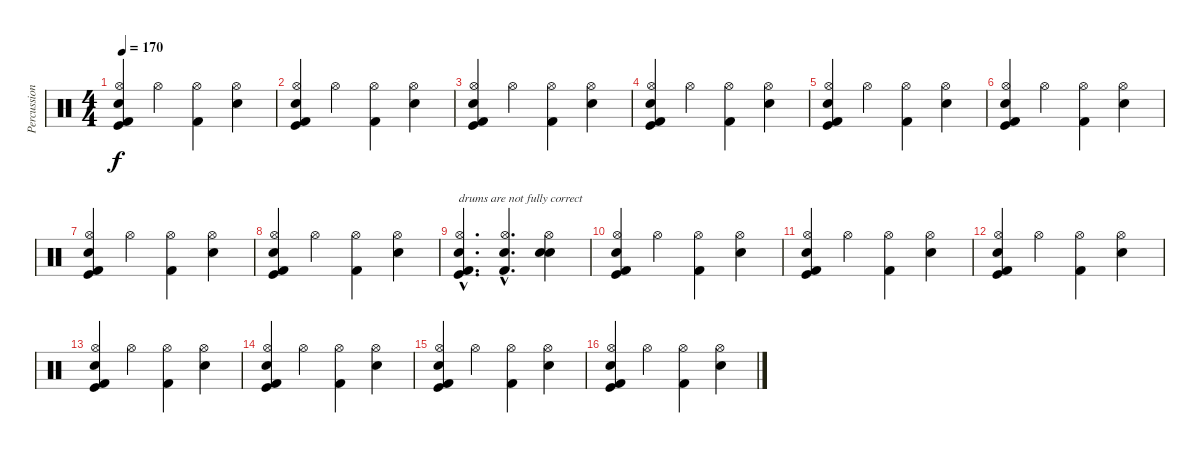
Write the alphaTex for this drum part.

\track ("Percussion" "Percussion") {instrument percussion}
\staff {score}
\articulation defaults
\ts (4 4)
\tempo 170
\clef neutral
\ks c
("Kick (hit) 2" "Hi-Hat (open)" "Kick (hit)" "Snare (hit) 2").4{dy f} "Hi-Hat (open)".4 ("Kick (hit) 2" "Hi-Hat (open)").4 ("Electric Snare (hit)" "Hi-Hat (open)").4 |
("Kick (hit) 2" "Hi-Hat (open)" "Kick (hit)" "Snare (hit) 2").4 "Hi-Hat (open)".4 ("Kick (hit) 2" "Hi-Hat (open)").4 ("Electric Snare (hit)" "Hi-Hat (open)").4 |
("Kick (hit) 2" "Hi-Hat (open)" "Kick (hit)" "Snare (hit) 2").4 "Hi-Hat (open)".4 ("Kick (hit) 2" "Hi-Hat (open)").4 ("Electric Snare (hit)" "Hi-Hat (open)").4 |
("Kick (hit) 2" "Hi-Hat (open)" "Kick (hit)" "Snare (hit) 2").4 "Hi-Hat (open)".4 ("Kick (hit) 2" "Hi-Hat (open)").4 ("Electric Snare (hit)" "Hi-Hat (open)").4 |
("Kick (hit) 2" "Hi-Hat (open)" "Kick (hit)" "Snare (hit) 2").4 "Hi-Hat (open)".4 ("Kick (hit) 2" "Hi-Hat (open)").4 ("Electric Snare (hit)" "Hi-Hat (open)").4 |
("Kick (hit) 2" "Hi-Hat (open)" "Kick (hit)" "Snare (hit) 2").4 "Hi-Hat (open)".4 ("Kick (hit) 2" "Hi-Hat (open)").4 ("Electric Snare (hit)" "Hi-Hat (open)").4 |
("Kick (hit) 2" "Hi-Hat (open)" "Kick (hit)" "Snare (hit) 2").4 "Hi-Hat (open)".4 ("Kick (hit) 2" "Hi-Hat (open)").4 ("Electric Snare (hit)" "Hi-Hat (open)").4 |
("Kick (hit) 2" "Hi-Hat (open)" "Kick (hit)" "Snare (hit) 2").4 "Hi-Hat (open)".4 ("Kick (hit) 2" "Hi-Hat (open)").4 ("Electric Snare (hit)" "Hi-Hat (open)").4 |
("Kick (hit) 2"{hac} "Hi-Hat (open)"{hac} "Kick (hit)"{hac} "Snare (hit) 2"{hac}).4{d txt "drums are not fully correct"} ("Kick (hit) 2"{hac} "Hi-Hat (open)"{hac} "Snare (hit) 2"{hac}).4{d} ("Electric Snare (hit)" "Hi-Hat (open)" "Snare (hit) 2").4 |
("Kick (hit) 2" "Hi-Hat (open)" "Kick (hit)" "Snare (hit) 2").4 "Hi-Hat (open)".4 ("Kick (hit) 2" "Hi-Hat (open)").4 ("Electric Snare (hit)" "Hi-Hat (open)").4 |
("Kick (hit) 2" "Hi-Hat (open)" "Kick (hit)" "Snare (hit) 2").4 "Hi-Hat (open)".4 ("Kick (hit) 2" "Hi-Hat (open)").4 ("Electric Snare (hit)" "Hi-Hat (open)").4 |
("Kick (hit) 2" "Hi-Hat (open)" "Kick (hit)" "Snare (hit) 2").4 "Hi-Hat (open)".4 ("Kick (hit) 2" "Hi-Hat (open)").4 ("Electric Snare (hit)" "Hi-Hat (open)").4 |
("Kick (hit) 2" "Hi-Hat (open)" "Kick (hit)" "Snare (hit) 2").4 "Hi-Hat (open)".4 ("Kick (hit) 2" "Hi-Hat (open)").4 ("Electric Snare (hit)" "Hi-Hat (open)").4 |
("Kick (hit) 2" "Hi-Hat (open)" "Kick (hit)" "Snare (hit) 2").4 "Hi-Hat (open)".4 ("Kick (hit) 2" "Hi-Hat (open)").4 ("Electric Snare (hit)" "Hi-Hat (open)").4 |
("Kick (hit) 2" "Hi-Hat (open)" "Kick (hit)" "Snare (hit) 2").4 "Hi-Hat (open)".4 ("Kick (hit) 2" "Hi-Hat (open)").4 ("Electric Snare (hit)" "Hi-Hat (open)").4 |
("Kick (hit) 2" "Hi-Hat (open)" "Kick (hit)" "Snare (hit) 2").4 "Hi-Hat (open)".4 ("Kick (hit) 2" "Hi-Hat (open)").4 ("Electric Snare (hit)" "Hi-Hat (open)").4
